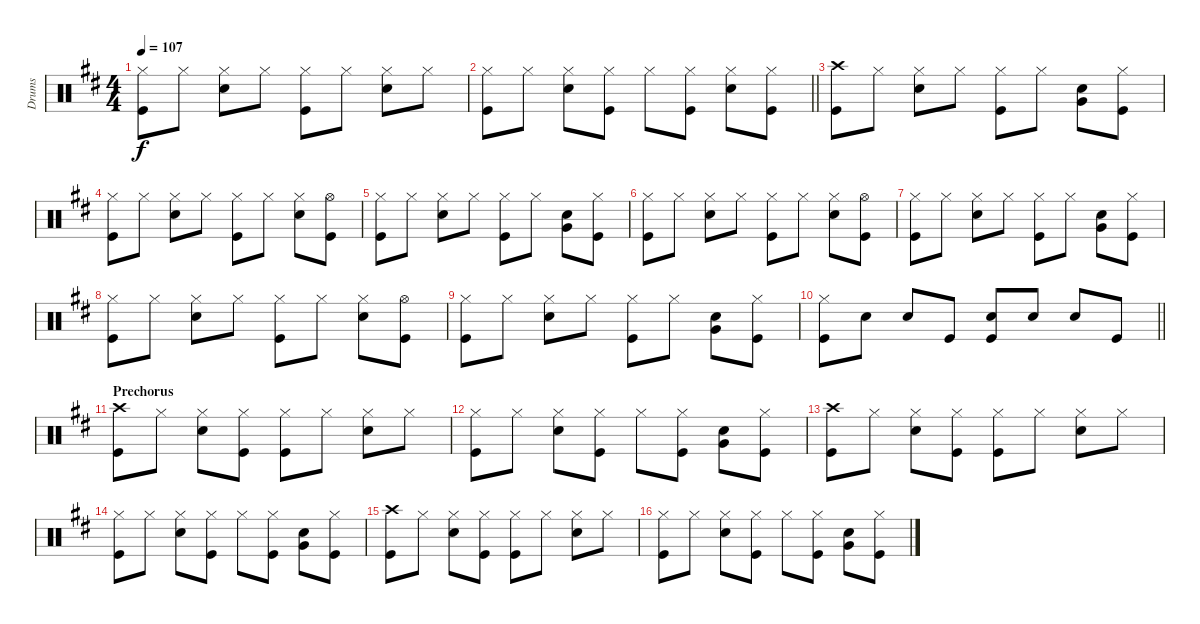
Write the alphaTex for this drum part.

\track ("Drums" "Drums") {instrument percussion}
\staff {score}
\articulation defaults
\ts (4 4)
\tempo 107
\clef neutral
\ks d
("Hi-Hat (closed)" "Kick (hit)").8{dy f} "Hi-Hat (closed)".8 ("Hi-Hat (closed)" "Snare (hit) 2").8 "Hi-Hat (closed)".8 ("Hi-Hat (closed)" "Kick (hit)").8 "Hi-Hat (closed)".8 ("Hi-Hat (closed)" "Snare (hit) 2").8 "Hi-Hat (closed)".8 |
\barLineRight lightlight
("Hi-Hat (closed)" "Kick (hit)").8 "Hi-Hat (closed)".8 ("Hi-Hat (closed)" "Snare (hit) 2").8 ("Hi-Hat (closed)" "Kick (hit)").8 "Hi-Hat (closed)".8 ("Hi-Hat (closed)" "Kick (hit)").8 ("Hi-Hat (closed)" "Snare (hit) 2").8 ("Hi-Hat (closed)" "Kick (hit)").8 |
("Crash high (hit)" "Kick (hit)").8 "Hi-Hat (closed)".8 ("Hi-Hat (closed)" "Snare (hit) 2").8 "Hi-Hat (closed)".8 ("Hi-Hat (closed)" "Kick (hit)").8 "Hi-Hat (closed)".8 ("Snare (hit) 2" "Very Low Tom (hit)").8 ("Hi-Hat (closed)" "Kick (hit)").8 |
("Hi-Hat (closed)" "Kick (hit)").8 "Hi-Hat (closed)".8 ("Hi-Hat (closed)" "Snare (hit) 2").8 "Hi-Hat (closed)".8 ("Hi-Hat (closed)" "Kick (hit)").8 "Hi-Hat (closed)".8 ("Hi-Hat (closed)" "Snare (hit) 2").8 ("Hi-Hat (open)" "Kick (hit)").8 |
("Hi-Hat (closed)" "Kick (hit)").8 "Hi-Hat (closed)".8 ("Hi-Hat (closed)" "Snare (hit) 2").8 "Hi-Hat (closed)".8 ("Hi-Hat (closed)" "Kick (hit)").8 "Hi-Hat (closed)".8 ("Snare (hit) 2" "Very Low Tom (hit)").8 ("Hi-Hat (closed)" "Kick (hit)").8 |
("Hi-Hat (closed)" "Kick (hit)").8 "Hi-Hat (closed)".8 ("Hi-Hat (closed)" "Snare (hit) 2").8 "Hi-Hat (closed)".8 ("Hi-Hat (closed)" "Kick (hit)").8 "Hi-Hat (closed)".8 ("Hi-Hat (closed)" "Snare (hit) 2").8 ("Hi-Hat (open)" "Kick (hit)").8 |
("Hi-Hat (closed)" "Kick (hit)").8 "Hi-Hat (closed)".8 ("Hi-Hat (closed)" "Snare (hit) 2").8 "Hi-Hat (closed)".8 ("Hi-Hat (closed)" "Kick (hit)").8 "Hi-Hat (closed)".8 ("Snare (hit) 2" "Very Low Tom (hit)").8 ("Hi-Hat (closed)" "Kick (hit)").8 |
("Hi-Hat (closed)" "Kick (hit)").8 "Hi-Hat (closed)".8 ("Hi-Hat (closed)" "Snare (hit) 2").8 "Hi-Hat (closed)".8 ("Hi-Hat (closed)" "Kick (hit)").8 "Hi-Hat (closed)".8 ("Hi-Hat (closed)" "Snare (hit) 2").8 ("Hi-Hat (open)" "Kick (hit)").8 |
("Hi-Hat (closed)" "Kick (hit)").8 "Hi-Hat (closed)".8 ("Hi-Hat (closed)" "Snare (hit) 2").8 "Hi-Hat (closed)".8 ("Hi-Hat (closed)" "Kick (hit)").8 "Hi-Hat (closed)".8 ("Snare (hit) 2" "Very Low Tom (hit)").8 ("Hi-Hat (closed)" "Kick (hit)").8 |
\barLineRight lightlight
("Hi-Hat (closed)" "Kick (hit)").8 "Snare (hit) 2".8 "Snare (hit) 2".8 "Kick (hit)".8 ("Snare (hit) 2" "Kick (hit)").8 "Snare (hit) 2".8 "Snare (hit) 2".8 "Kick (hit)".8 |
\section ("" "Prechorus")
("Crash high (hit)" "Kick (hit)").8 "Hi-Hat (closed)".8 ("Hi-Hat (closed)" "Snare (hit) 2").8 ("Hi-Hat (closed)" "Kick (hit)").8 ("Hi-Hat (closed)" "Kick (hit)").8 "Hi-Hat (closed)".8 ("Hi-Hat (closed)" "Snare (hit) 2").8 "Hi-Hat (closed)".8 |
("Hi-Hat (closed)" "Kick (hit)").8 "Hi-Hat (closed)".8 ("Hi-Hat (closed)" "Snare (hit) 2").8 ("Hi-Hat (closed)" "Kick (hit)").8 "Hi-Hat (closed)".8 ("Hi-Hat (closed)" "Kick (hit)").8 ("Snare (hit) 2" "Very Low Tom (hit)").8 ("Hi-Hat (closed)" "Kick (hit)").8 |
("Crash high (hit)" "Kick (hit)").8 "Hi-Hat (closed)".8 ("Hi-Hat (closed)" "Snare (hit) 2").8 ("Hi-Hat (closed)" "Kick (hit)").8 ("Hi-Hat (closed)" "Kick (hit)").8 "Hi-Hat (closed)".8 ("Hi-Hat (closed)" "Snare (hit) 2").8 "Hi-Hat (closed)".8 |
("Hi-Hat (closed)" "Kick (hit)").8 "Hi-Hat (closed)".8 ("Hi-Hat (closed)" "Snare (hit) 2").8 ("Hi-Hat (closed)" "Kick (hit)").8 "Hi-Hat (closed)".8 ("Hi-Hat (closed)" "Kick (hit)").8 ("Snare (hit) 2" "Very Low Tom (hit)").8 ("Hi-Hat (closed)" "Kick (hit)").8 |
("Crash high (hit)" "Kick (hit)").8 "Hi-Hat (closed)".8 ("Hi-Hat (closed)" "Snare (hit) 2").8 ("Hi-Hat (closed)" "Kick (hit)").8 ("Hi-Hat (closed)" "Kick (hit)").8 "Hi-Hat (closed)".8 ("Hi-Hat (closed)" "Snare (hit) 2").8 "Hi-Hat (closed)".8 |
("Hi-Hat (closed)" "Kick (hit)").8 "Hi-Hat (closed)".8 ("Hi-Hat (closed)" "Snare (hit) 2").8 ("Hi-Hat (closed)" "Kick (hit)").8 "Hi-Hat (closed)".8 ("Hi-Hat (closed)" "Kick (hit)").8 ("Snare (hit) 2" "Very Low Tom (hit)").8 ("Hi-Hat (closed)" "Kick (hit)").8
